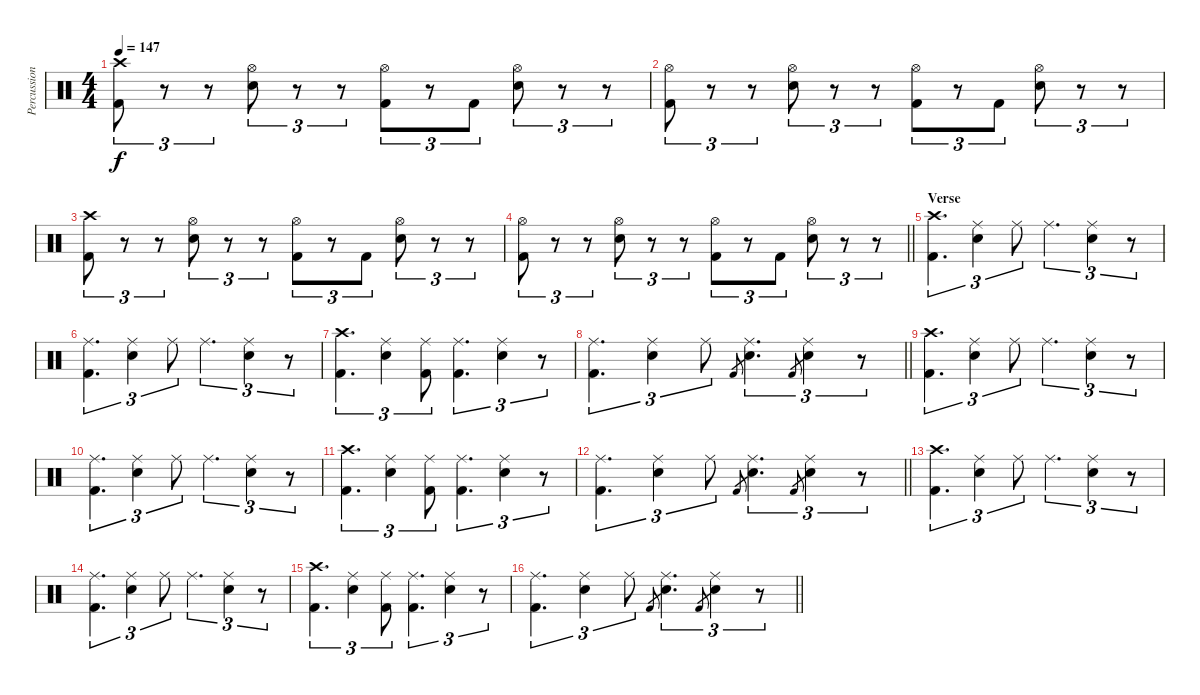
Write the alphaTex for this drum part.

\track ("Percussion" "Percussion") {instrument percussion}
\staff {score}
\articulation defaults
\ts (4 4)
\tempo 147
\clef neutral
\ks c
("Crash high (hit)" "Kick (hit) 2").8{tu (3 2) dy f} r.8{tu (3 2)} r.8{tu (3 2)} ("Hi-Hat (open)" "Electric Snare (hit)").8{tu (3 2)} r.8{tu (3 2)} r.8{tu (3 2)} ("Hi-Hat (open)" "Kick (hit) 2").8{tu (3 2)} r.8{tu (3 2)} "Kick (hit) 2".8{tu (3 2)} ("Hi-Hat (open)" "Electric Snare (hit)").8{tu (3 2)} r.8{tu (3 2)} r.8{tu (3 2)} |
("Hi-Hat (open)" "Kick (hit) 2").8{tu (3 2)} r.8{tu (3 2)} r.8{tu (3 2)} ("Hi-Hat (open)" "Electric Snare (hit)").8{tu (3 2)} r.8{tu (3 2)} r.8{tu (3 2)} ("Hi-Hat (open)" "Kick (hit) 2").8{tu (3 2)} r.8{tu (3 2)} "Kick (hit) 2".8{tu (3 2)} ("Hi-Hat (open)" "Electric Snare (hit)").8{tu (3 2)} r.8{tu (3 2)} r.8{tu (3 2)} |
("Crash high (hit)" "Kick (hit) 2").8{tu (3 2)} r.8{tu (3 2)} r.8{tu (3 2)} ("Hi-Hat (open)" "Electric Snare (hit)").8{tu (3 2)} r.8{tu (3 2)} r.8{tu (3 2)} ("Hi-Hat (open)" "Kick (hit) 2").8{tu (3 2)} r.8{tu (3 2)} "Kick (hit) 2".8{tu (3 2)} ("Hi-Hat (open)" "Electric Snare (hit)").8{tu (3 2)} r.8{tu (3 2)} r.8{tu (3 2)} |
\barLineRight lightlight
("Hi-Hat (open)" "Kick (hit) 2").8{tu (3 2)} r.8{tu (3 2)} r.8{tu (3 2)} ("Hi-Hat (open)" "Electric Snare (hit)").8{tu (3 2)} r.8{tu (3 2)} r.8{tu (3 2)} ("Hi-Hat (open)" "Kick (hit) 2").8{tu (3 2)} r.8{tu (3 2)} "Kick (hit) 2".8{tu (3 2)} ("Hi-Hat (open)" "Electric Snare (hit)").8{tu (3 2)} r.8{tu (3 2)} r.8{tu (3 2)} |
\section ("" "Verse")
("Crash high (hit)" "Kick (hit) 2").4{d tu (3 2)} ("Ride (middle)" "Electric Snare (hit)").4{tu (3 2)} "Ride (middle)".8{tu (3 2)} "Ride (middle)".4{d tu (3 2)} ("Ride (middle)" "Electric Snare (hit)").4{tu (3 2)} r.8{tu (3 2)} |
("Ride (middle)" "Kick (hit) 2").4{d tu (3 2)} ("Ride (middle)" "Electric Snare (hit)").4{tu (3 2)} "Ride (middle)".8{tu (3 2)} "Ride (middle)".4{d tu (3 2)} ("Ride (middle)" "Electric Snare (hit)").4{tu (3 2)} r.8{tu (3 2)} |
("Crash high (hit)" "Kick (hit) 2").4{d tu (3 2)} ("Ride (middle)" "Electric Snare (hit)").4{tu (3 2)} ("Ride (middle)" "Kick (hit) 2").8{tu (3 2)} ("Ride (middle)" "Kick (hit) 2").4{d tu (3 2)} ("Ride (middle)" "Electric Snare (hit)").4{tu (3 2)} r.8{tu (3 2)} |
\barLineRight lightlight
("Ride (middle)" "Kick (hit) 2").4{d tu (3 2)} ("Ride (middle)" "Electric Snare (hit)").4{tu (3 2)} "Ride (middle)".8{tu (3 2)} "Kick (hit) 2".8{gr} ("Ride (middle)" "Electric Snare (hit)").4{d tu (3 2)} "Kick (hit) 2".8{gr} ("Ride (middle)" "Electric Snare (hit)").4{tu (3 2)} r.8{tu (3 2)} |
("Crash high (hit)" "Kick (hit) 2").4{d tu (3 2)} ("Ride (middle)" "Electric Snare (hit)").4{tu (3 2)} "Ride (middle)".8{tu (3 2)} "Ride (middle)".4{d tu (3 2)} ("Ride (middle)" "Electric Snare (hit)").4{tu (3 2)} r.8{tu (3 2)} |
("Ride (middle)" "Kick (hit) 2").4{d tu (3 2)} ("Ride (middle)" "Electric Snare (hit)").4{tu (3 2)} "Ride (middle)".8{tu (3 2)} "Ride (middle)".4{d tu (3 2)} ("Ride (middle)" "Electric Snare (hit)").4{tu (3 2)} r.8{tu (3 2)} |
("Crash high (hit)" "Kick (hit) 2").4{d tu (3 2)} ("Ride (middle)" "Electric Snare (hit)").4{tu (3 2)} ("Ride (middle)" "Kick (hit) 2").8{tu (3 2)} ("Ride (middle)" "Kick (hit) 2").4{d tu (3 2)} ("Ride (middle)" "Electric Snare (hit)").4{tu (3 2)} r.8{tu (3 2)} |
\barLineRight lightlight
("Ride (middle)" "Kick (hit) 2").4{d tu (3 2)} ("Ride (middle)" "Electric Snare (hit)").4{tu (3 2)} "Ride (middle)".8{tu (3 2)} "Kick (hit) 2".8{gr} ("Ride (middle)" "Electric Snare (hit)").4{d tu (3 2)} "Kick (hit) 2".8{gr} ("Ride (middle)" "Electric Snare (hit)").4{tu (3 2)} r.8{tu (3 2)} |
("Crash high (hit)" "Kick (hit) 2").4{d tu (3 2)} ("Ride (middle)" "Electric Snare (hit)").4{tu (3 2)} "Ride (middle)".8{tu (3 2)} "Ride (middle)".4{d tu (3 2)} ("Ride (middle)" "Electric Snare (hit)").4{tu (3 2)} r.8{tu (3 2)} |
("Ride (middle)" "Kick (hit) 2").4{d tu (3 2)} ("Ride (middle)" "Electric Snare (hit)").4{tu (3 2)} "Ride (middle)".8{tu (3 2)} "Ride (middle)".4{d tu (3 2)} ("Ride (middle)" "Electric Snare (hit)").4{tu (3 2)} r.8{tu (3 2)} |
("Crash high (hit)" "Kick (hit) 2").4{d tu (3 2)} ("Ride (middle)" "Electric Snare (hit)").4{tu (3 2)} ("Ride (middle)" "Kick (hit) 2").8{tu (3 2)} ("Ride (middle)" "Kick (hit) 2").4{d tu (3 2)} ("Ride (middle)" "Electric Snare (hit)").4{tu (3 2)} r.8{tu (3 2)} |
\barLineRight lightlight
("Ride (middle)" "Kick (hit) 2").4{d tu (3 2)} ("Ride (middle)" "Electric Snare (hit)").4{tu (3 2)} "Ride (middle)".8{tu (3 2)} "Kick (hit) 2".8{gr} ("Ride (middle)" "Electric Snare (hit)").4{d tu (3 2)} "Kick (hit) 2".8{gr} ("Ride (middle)" "Electric Snare (hit)").4{tu (3 2)} r.8{tu (3 2)}
